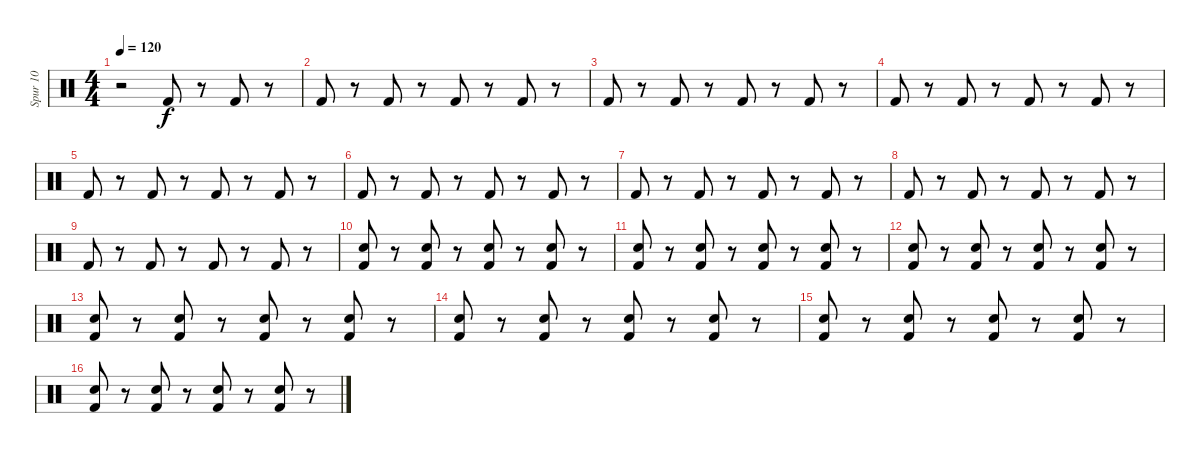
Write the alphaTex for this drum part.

\track ("Spur 10" "Spur 10") {instrument percussion}
\staff {score}
\articulation defaults
\ts (4 4)
\tempo 120
\clef neutral
\ks c
r.2{dy f} "Kick (hit) 2".8 r.8 "Kick (hit) 2".8 r.8 |
"Kick (hit) 2".8 r.8 "Kick (hit) 2".8 r.8 "Kick (hit) 2".8 r.8 "Kick (hit) 2".8 r.8 |
"Kick (hit) 2".8 r.8 "Kick (hit) 2".8 r.8 "Kick (hit) 2".8 r.8 "Kick (hit) 2".8 r.8 |
"Kick (hit) 2".8 r.8 "Kick (hit) 2".8 r.8 "Kick (hit) 2".8 r.8 "Kick (hit) 2".8 r.8 |
"Kick (hit) 2".8 r.8 "Kick (hit) 2".8 r.8 "Kick (hit) 2".8 r.8 "Kick (hit) 2".8 r.8 |
"Kick (hit) 2".8 r.8 "Kick (hit) 2".8 r.8 "Kick (hit) 2".8 r.8 "Kick (hit) 2".8 r.8 |
"Kick (hit) 2".8 r.8 "Kick (hit) 2".8 r.8 "Kick (hit) 2".8 r.8 "Kick (hit) 2".8 r.8 |
"Kick (hit) 2".8 r.8 "Kick (hit) 2".8 r.8 "Kick (hit) 2".8 r.8 "Kick (hit) 2".8 r.8 |
"Kick (hit) 2".8 r.8 "Kick (hit) 2".8 r.8 "Kick (hit) 2".8 r.8 "Kick (hit) 2".8 r.8 |
("Hand Clap (hit)" "Kick (hit) 2").8 r.8 ("Hand Clap (hit)" "Kick (hit) 2").8 r.8 ("Hand Clap (hit)" "Kick (hit) 2").8 r.8 ("Hand Clap (hit)" "Kick (hit) 2").8 r.8 |
("Hand Clap (hit)" "Kick (hit) 2").8 r.8 ("Hand Clap (hit)" "Kick (hit) 2").8 r.8 ("Hand Clap (hit)" "Kick (hit) 2").8 r.8 ("Hand Clap (hit)" "Kick (hit) 2").8 r.8 |
("Hand Clap (hit)" "Kick (hit) 2").8 r.8 ("Hand Clap (hit)" "Kick (hit) 2").8 r.8 ("Hand Clap (hit)" "Kick (hit) 2").8 r.8 ("Hand Clap (hit)" "Kick (hit) 2").8 r.8 |
("Hand Clap (hit)" "Kick (hit) 2").8 r.8 ("Hand Clap (hit)" "Kick (hit) 2").8 r.8 ("Hand Clap (hit)" "Kick (hit) 2").8 r.8 ("Hand Clap (hit)" "Kick (hit) 2").8 r.8 |
("Hand Clap (hit)" "Kick (hit) 2").8 r.8 ("Hand Clap (hit)" "Kick (hit) 2").8 r.8 ("Hand Clap (hit)" "Kick (hit) 2").8 r.8 ("Hand Clap (hit)" "Kick (hit) 2").8 r.8 |
("Hand Clap (hit)" "Kick (hit) 2").8 r.8 ("Hand Clap (hit)" "Kick (hit) 2").8 r.8 ("Hand Clap (hit)" "Kick (hit) 2").8 r.8 ("Hand Clap (hit)" "Kick (hit) 2").8 r.8 |
("Hand Clap (hit)" "Kick (hit) 2").8 r.8 ("Hand Clap (hit)" "Kick (hit) 2").8 r.8 ("Hand Clap (hit)" "Kick (hit) 2").8 r.8 ("Hand Clap (hit)" "Kick (hit) 2").8 r.8
